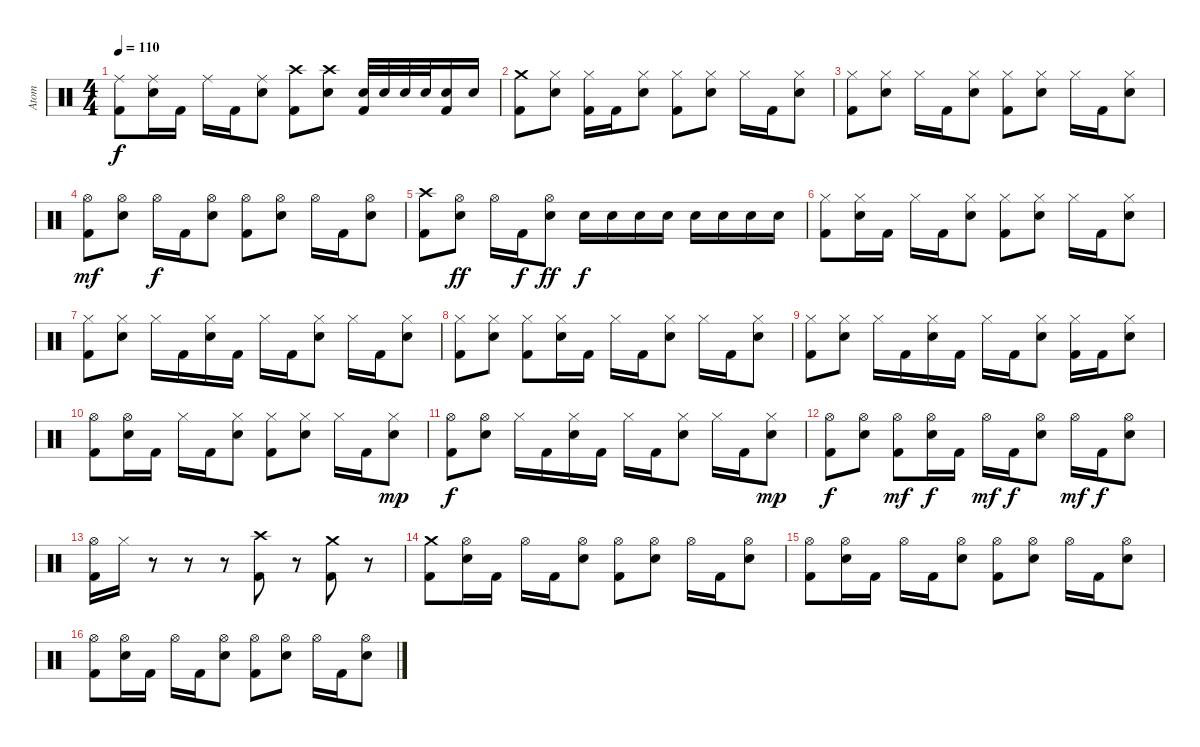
\track ("Atom" "Atom") {instrument percussion}
\staff {score}
\articulation defaults
\ts (4 4)
\tempo 110
\clef neutral
\ks c
("Ride (middle)" "Kick (hit) 2").8{dy f} ("Ride (middle)" "Electric Snare (hit)").16 "Kick (hit) 2".16 "Ride (middle)".16 "Kick (hit) 2".16 ("Ride (middle)" "Electric Snare (hit)").8 ("Crash high (hit)" "Kick (hit) 2").8 ("Crash high (hit)" "Electric Snare (hit)").8 ("Electric Snare (hit)" "Kick (hit) 2").32 "Electric Snare (hit)".32 "Electric Snare (hit)".32 "Electric Snare (hit)".32 ("Electric Snare (hit)" "Kick (hit) 2").16 "Electric Snare (hit)".16 |
("Crash medium (hit)" "Kick (hit) 2").8 ("Hi-Hat (closed)" "Electric Snare (hit)").8 ("Hi-Hat (closed)" "Kick (hit) 2").16 "Kick (hit) 2".16 ("Hi-Hat (closed)" "Electric Snare (hit)").8 ("Hi-Hat (closed)" "Kick (hit) 2").8 ("Hi-Hat (closed)" "Electric Snare (hit)").8 "Hi-Hat (closed)".16 "Kick (hit) 2".16 ("Hi-Hat (closed)" "Electric Snare (hit)").8 |
("Hi-Hat (closed)" "Kick (hit) 2").8 ("Hi-Hat (closed)" "Electric Snare (hit)").8 "Hi-Hat (closed)".16 "Kick (hit) 2".16 ("Hi-Hat (closed)" "Electric Snare (hit)").8 ("Hi-Hat (closed)" "Kick (hit) 2").8 ("Hi-Hat (closed)" "Electric Snare (hit)").8 "Hi-Hat (closed)".16 "Kick (hit) 2".16 ("Hi-Hat (closed)" "Electric Snare (hit)").8 |
("Hi-Hat (open)" "Kick (hit) 2").8{dy mf} ("Hi-Hat (open)" "Electric Snare (hit)").8 "Hi-Hat (open)".16{dy f} "Kick (hit) 2".16 ("Hi-Hat (open)" "Electric Snare (hit)").8 ("Hi-Hat (open)" "Kick (hit) 2").8 ("Hi-Hat (open)" "Electric Snare (hit)").8 "Hi-Hat (open)".16 "Kick (hit) 2".16 ("Hi-Hat (open)" "Electric Snare (hit)").8 |
("Crash high (hit)" "Kick (hit) 2").8 ("Hi-Hat (open)" "Electric Snare (hit)").8{dy ff} "Hi-Hat (open)".16 "Kick (hit) 2".16{dy f} ("Hi-Hat (open)" "Electric Snare (hit)").8{dy ff} "Electric Snare (hit)".16{dy f} "Electric Snare (hit)".16 "Electric Snare (hit)".16 "Electric Snare (hit)".16 "Electric Snare (hit)".16 "Electric Snare (hit)".16 "Electric Snare (hit)".16 "Electric Snare (hit)".16 |
("Hi-Hat (closed)" "Kick (hit) 2").8 ("Hi-Hat (closed)" "Electric Snare (hit)").16 "Kick (hit) 2".16 "Hi-Hat (closed)".16 "Kick (hit) 2".16 ("Hi-Hat (closed)" "Electric Snare (hit)").8 ("Hi-Hat (closed)" "Kick (hit) 2").8 ("Hi-Hat (closed)" "Electric Snare (hit)").8 "Hi-Hat (closed)".16 "Kick (hit) 2".16 ("Hi-Hat (closed)" "Electric Snare (hit)").8 |
("Hi-Hat (closed)" "Kick (hit) 2").8 ("Hi-Hat (closed)" "Electric Snare (hit)").8 "Hi-Hat (closed)".16 "Kick (hit) 2".16 ("Hi-Hat (closed)" "Electric Snare (hit)").16 "Kick (hit) 2".16 "Hi-Hat (closed)".16 "Kick (hit) 2".16 ("Hi-Hat (closed)" "Electric Snare (hit)").8 "Hi-Hat (closed)".16 "Kick (hit) 2".16 ("Hi-Hat (closed)" "Electric Snare (hit)").8 |
("Hi-Hat (closed)" "Kick (hit) 2").8 ("Hi-Hat (closed)" "Electric Snare (hit)").8 ("Hi-Hat (closed)" "Kick (hit) 2").8 ("Hi-Hat (closed)" "Electric Snare (hit)").16 "Kick (hit) 2".16 "Hi-Hat (closed)".16 "Kick (hit) 2".16 ("Hi-Hat (closed)" "Electric Snare (hit)").8 "Hi-Hat (closed)".16 "Kick (hit) 2".16 ("Hi-Hat (closed)" "Electric Snare (hit)").8 |
("Hi-Hat (closed)" "Kick (hit) 2").8 ("Hi-Hat (closed)" "Electric Snare (hit)").8 "Hi-Hat (closed)".16 "Kick (hit) 2".16 ("Hi-Hat (closed)" "Electric Snare (hit)").16 "Kick (hit) 2".16 "Hi-Hat (closed)".16 "Kick (hit) 2".16 ("Hi-Hat (closed)" "Electric Snare (hit)").8 ("Hi-Hat (closed)" "Kick (hit) 2").16 "Kick (hit) 2".16 ("Hi-Hat (closed)" "Electric Snare (hit)").8 |
("Hi-Hat (open)" "Kick (hit) 2").8 ("Hi-Hat (open)" "Electric Snare (hit)").16 "Kick (hit) 2".16 "Hi-Hat (closed)".16 "Kick (hit) 2".16 ("Hi-Hat (closed)" "Electric Snare (hit)").8 ("Hi-Hat (closed)" "Kick (hit) 2").8 ("Hi-Hat (closed)" "Electric Snare (hit)").8 "Hi-Hat (closed)".16 "Kick (hit) 2".16 ("Hi-Hat (closed)" "Electric Snare (hit)").8{dy mp} |
("Hi-Hat (open)" "Kick (hit) 2").8{dy f} ("Hi-Hat (open)" "Electric Snare (hit)").8 "Hi-Hat (closed)".16 "Kick (hit) 2".16 ("Hi-Hat (closed)" "Electric Snare (hit)").16 "Kick (hit) 2".16 "Hi-Hat (closed)".16 "Kick (hit) 2".16 ("Hi-Hat (closed)" "Electric Snare (hit)").8 "Hi-Hat (closed)".16 "Kick (hit) 2".16 ("Hi-Hat (closed)" "Electric Snare (hit)").8{dy mp} |
("Hi-Hat (open)" "Kick (hit) 2").8{dy f} ("Hi-Hat (open)" "Electric Snare (hit)").8 ("Hi-Hat (open)" "Kick (hit) 2").8{dy mf} ("Hi-Hat (open)" "Electric Snare (hit)").16{dy f} "Kick (hit) 2".16 "Hi-Hat (open)".16{dy mf} "Kick (hit) 2".16{dy f} ("Hi-Hat (open)" "Electric Snare (hit)").8 "Hi-Hat (open)".16{dy mf} "Kick (hit) 2".16{dy f} ("Hi-Hat (open)" "Electric Snare (hit)").8 |
("Hi-Hat (open)" "Kick (hit) 2").16 "Hi-Hat (closed)".16 r.8 r.8 r.8 ("Crash high (hit)" "Kick (hit) 2").8 r.8 ("Crash medium (hit)" "Kick (hit) 2").8 r.8 |
("Crash medium (hit)" "Kick (hit) 2").8 ("Hi-Hat (open)" "Electric Snare (hit)").16 "Kick (hit) 2".16 "Hi-Hat (open)".16 "Kick (hit) 2".16 ("Hi-Hat (open)" "Electric Snare (hit)").8 ("Hi-Hat (open)" "Kick (hit) 2").8 ("Hi-Hat (open)" "Electric Snare (hit)").8 "Hi-Hat (open)".16 "Kick (hit) 2".16 ("Hi-Hat (open)" "Electric Snare (hit)").8 |
("Hi-Hat (open)" "Kick (hit) 2").8 ("Hi-Hat (open)" "Electric Snare (hit)").16 "Kick (hit) 2".16 "Hi-Hat (open)".16 "Kick (hit) 2".16 ("Hi-Hat (open)" "Electric Snare (hit)").8 ("Hi-Hat (open)" "Kick (hit) 2").8 ("Hi-Hat (open)" "Electric Snare (hit)").8 "Hi-Hat (open)".16 "Kick (hit) 2".16 ("Hi-Hat (open)" "Electric Snare (hit)").8 |
("Hi-Hat (open)" "Kick (hit) 2").8 ("Hi-Hat (open)" "Electric Snare (hit)").16 "Kick (hit) 2".16 "Hi-Hat (open)".16 "Kick (hit) 2".16 ("Hi-Hat (open)" "Electric Snare (hit)").8 ("Hi-Hat (open)" "Kick (hit) 2").8 ("Hi-Hat (open)" "Electric Snare (hit)").8 "Hi-Hat (open)".16 "Kick (hit) 2".16 ("Hi-Hat (open)" "Electric Snare (hit)").8
